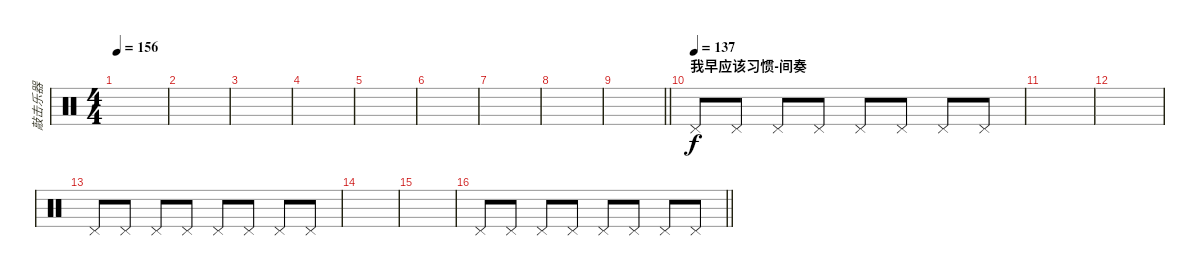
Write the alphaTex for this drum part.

\track ("敲击乐器" "敲击乐器") {instrument percussion}
\staff {score}
\articulation defaults
\ts (4 4)
\tempo 156
\clef neutral
\ks c
|
|
|
|
|
|
|
|
\barLineRight lightlight
|
\section ("" "我早应该习惯-间奏")
\tempo (137)
"Pedal Hi-Hat (hit)".8 "Pedal Hi-Hat (hit)".8 "Pedal Hi-Hat (hit)".8 "Pedal Hi-Hat (hit)".8 "Pedal Hi-Hat (hit)".8 "Pedal Hi-Hat (hit)".8 "Pedal Hi-Hat (hit)".8 "Pedal Hi-Hat (hit)".8 |
|
|
"Pedal Hi-Hat (hit)".8 "Pedal Hi-Hat (hit)".8 "Pedal Hi-Hat (hit)".8 "Pedal Hi-Hat (hit)".8 "Pedal Hi-Hat (hit)".8 "Pedal Hi-Hat (hit)".8 "Pedal Hi-Hat (hit)".8 "Pedal Hi-Hat (hit)".8 |
|
|
\barLineRight lightlight "Pedal Hi-Hat (hit)".8 "Pedal Hi-Hat (hit)".8 "Pedal Hi-Hat (hit)".8 "Pedal Hi-Hat (hit)".8 "Pedal Hi-Hat (hit)".8 "Pedal Hi-Hat (hit)".8 "Pedal Hi-Hat (hit)".8 "Pedal Hi-Hat (hit)".8
